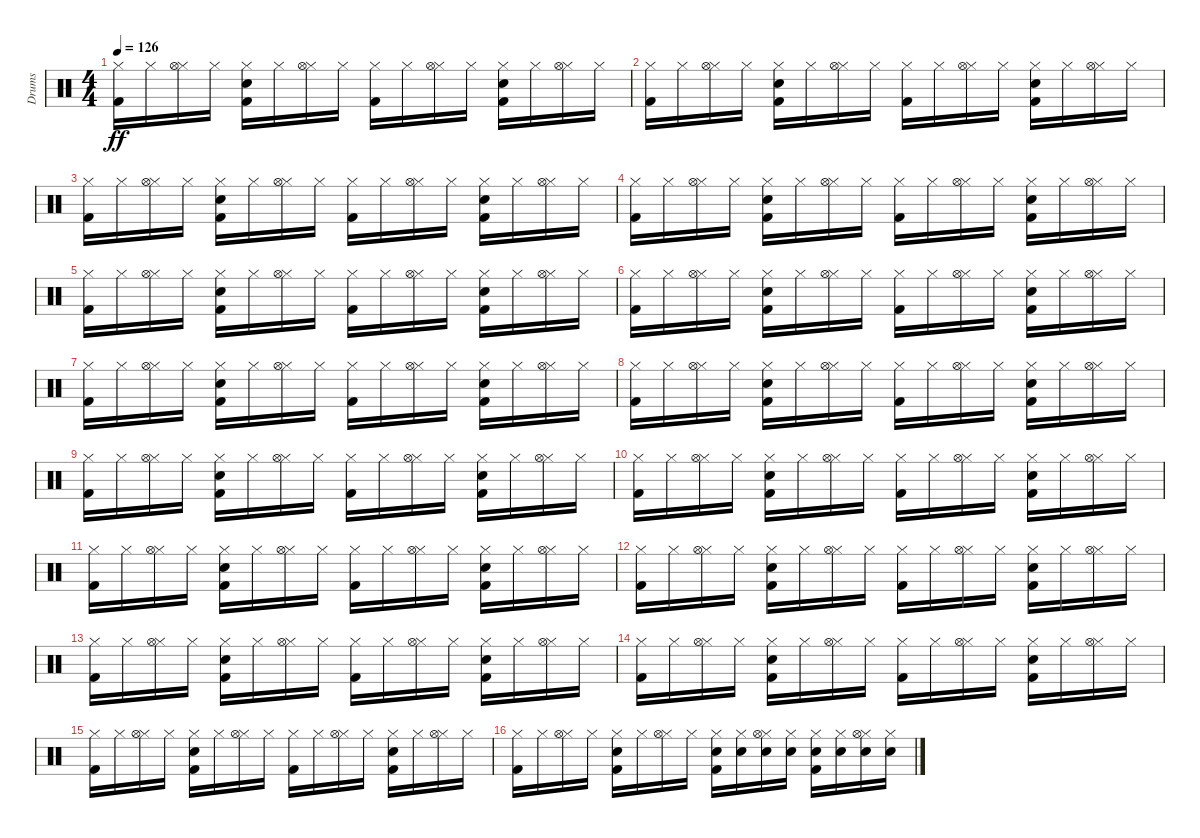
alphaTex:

\track ("Drums" "Drums") {instrument percussion}
\staff {score}
\articulation defaults
\ts (4 4)
\tempo 126
\clef neutral
\ks c
("Kick (hit) 2" "Hi-Hat (closed)").16{dy ff} "Hi-Hat (closed)".16 ("Hi-Hat (closed)" "Hi-Hat (open)").16 "Hi-Hat (closed)".16 ("Kick (hit) 2" "Electric Snare (hit)" "Hi-Hat (closed)").16 "Hi-Hat (closed)".16 ("Hi-Hat (closed)" "Hi-Hat (open)").16 "Hi-Hat (closed)".16 ("Kick (hit) 2" "Hi-Hat (closed)").16 "Hi-Hat (closed)".16 ("Hi-Hat (closed)" "Hi-Hat (open)").16 "Hi-Hat (closed)".16 ("Kick (hit) 2" "Electric Snare (hit)" "Hi-Hat (closed)").16 "Hi-Hat (closed)".16 ("Hi-Hat (closed)" "Hi-Hat (open)").16 "Hi-Hat (closed)".16 |
("Kick (hit) 2" "Hi-Hat (closed)").16 "Hi-Hat (closed)".16 ("Hi-Hat (closed)" "Hi-Hat (open)").16 "Hi-Hat (closed)".16 ("Kick (hit) 2" "Electric Snare (hit)" "Hi-Hat (closed)").16 "Hi-Hat (closed)".16 ("Hi-Hat (closed)" "Hi-Hat (open)").16 "Hi-Hat (closed)".16 ("Kick (hit) 2" "Hi-Hat (closed)").16 "Hi-Hat (closed)".16 ("Hi-Hat (closed)" "Hi-Hat (open)").16 "Hi-Hat (closed)".16 ("Kick (hit) 2" "Electric Snare (hit)" "Hi-Hat (closed)").16 "Hi-Hat (closed)".16 ("Hi-Hat (closed)" "Hi-Hat (open)").16 "Hi-Hat (closed)".16 |
("Kick (hit) 2" "Hi-Hat (closed)").16 "Hi-Hat (closed)".16 ("Hi-Hat (closed)" "Hi-Hat (open)").16 "Hi-Hat (closed)".16 ("Kick (hit) 2" "Electric Snare (hit)" "Hi-Hat (closed)").16 "Hi-Hat (closed)".16 ("Hi-Hat (closed)" "Hi-Hat (open)").16 "Hi-Hat (closed)".16 ("Kick (hit) 2" "Hi-Hat (closed)").16 "Hi-Hat (closed)".16 ("Hi-Hat (closed)" "Hi-Hat (open)").16 "Hi-Hat (closed)".16 ("Kick (hit) 2" "Electric Snare (hit)" "Hi-Hat (closed)").16 "Hi-Hat (closed)".16 ("Hi-Hat (closed)" "Hi-Hat (open)").16 "Hi-Hat (closed)".16 |
("Kick (hit) 2" "Hi-Hat (closed)").16 "Hi-Hat (closed)".16 ("Hi-Hat (closed)" "Hi-Hat (open)").16 "Hi-Hat (closed)".16 ("Kick (hit) 2" "Electric Snare (hit)" "Hi-Hat (closed)").16 "Hi-Hat (closed)".16 ("Hi-Hat (closed)" "Hi-Hat (open)").16 "Hi-Hat (closed)".16 ("Kick (hit) 2" "Hi-Hat (closed)").16 "Hi-Hat (closed)".16 ("Hi-Hat (closed)" "Hi-Hat (open)").16 "Hi-Hat (closed)".16 ("Kick (hit) 2" "Electric Snare (hit)" "Hi-Hat (closed)").16 "Hi-Hat (closed)".16 ("Hi-Hat (closed)" "Hi-Hat (open)").16 "Hi-Hat (closed)".16 |
("Kick (hit) 2" "Hi-Hat (closed)").16 "Hi-Hat (closed)".16 ("Hi-Hat (closed)" "Hi-Hat (open)").16 "Hi-Hat (closed)".16 ("Kick (hit) 2" "Electric Snare (hit)" "Hi-Hat (closed)").16 "Hi-Hat (closed)".16 ("Hi-Hat (closed)" "Hi-Hat (open)").16 "Hi-Hat (closed)".16 ("Kick (hit) 2" "Hi-Hat (closed)").16 "Hi-Hat (closed)".16 ("Hi-Hat (closed)" "Hi-Hat (open)").16 "Hi-Hat (closed)".16 ("Kick (hit) 2" "Electric Snare (hit)" "Hi-Hat (closed)").16 "Hi-Hat (closed)".16 ("Hi-Hat (closed)" "Hi-Hat (open)").16 "Hi-Hat (closed)".16 |
("Kick (hit) 2" "Hi-Hat (closed)").16 "Hi-Hat (closed)".16 ("Hi-Hat (closed)" "Hi-Hat (open)").16 "Hi-Hat (closed)".16 ("Kick (hit) 2" "Electric Snare (hit)" "Hi-Hat (closed)").16 "Hi-Hat (closed)".16 ("Hi-Hat (closed)" "Hi-Hat (open)").16 "Hi-Hat (closed)".16 ("Kick (hit) 2" "Hi-Hat (closed)").16 "Hi-Hat (closed)".16 ("Hi-Hat (closed)" "Hi-Hat (open)").16 "Hi-Hat (closed)".16 ("Kick (hit) 2" "Electric Snare (hit)" "Hi-Hat (closed)").16 "Hi-Hat (closed)".16 ("Hi-Hat (closed)" "Hi-Hat (open)").16 "Hi-Hat (closed)".16 |
("Kick (hit) 2" "Hi-Hat (closed)").16 "Hi-Hat (closed)".16 ("Hi-Hat (closed)" "Hi-Hat (open)").16 "Hi-Hat (closed)".16 ("Kick (hit) 2" "Electric Snare (hit)" "Hi-Hat (closed)").16 "Hi-Hat (closed)".16 ("Hi-Hat (closed)" "Hi-Hat (open)").16 "Hi-Hat (closed)".16 ("Kick (hit) 2" "Hi-Hat (closed)").16 "Hi-Hat (closed)".16 ("Hi-Hat (closed)" "Hi-Hat (open)").16 "Hi-Hat (closed)".16 ("Kick (hit) 2" "Electric Snare (hit)" "Hi-Hat (closed)").16 "Hi-Hat (closed)".16 ("Hi-Hat (closed)" "Hi-Hat (open)").16 "Hi-Hat (closed)".16 |
("Kick (hit) 2" "Hi-Hat (closed)").16 "Hi-Hat (closed)".16 ("Hi-Hat (closed)" "Hi-Hat (open)").16 "Hi-Hat (closed)".16 ("Kick (hit) 2" "Electric Snare (hit)" "Hi-Hat (closed)").16 "Hi-Hat (closed)".16 ("Hi-Hat (closed)" "Hi-Hat (open)").16 "Hi-Hat (closed)".16 ("Kick (hit) 2" "Hi-Hat (closed)").16 "Hi-Hat (closed)".16 ("Hi-Hat (closed)" "Hi-Hat (open)").16 "Hi-Hat (closed)".16 ("Kick (hit) 2" "Electric Snare (hit)" "Hi-Hat (closed)").16 "Hi-Hat (closed)".16 ("Hi-Hat (closed)" "Hi-Hat (open)").16 "Hi-Hat (closed)".16 |
("Kick (hit) 2" "Hi-Hat (closed)").16 "Hi-Hat (closed)".16 ("Hi-Hat (closed)" "Hi-Hat (open)").16 "Hi-Hat (closed)".16 ("Kick (hit) 2" "Electric Snare (hit)" "Hi-Hat (closed)").16 "Hi-Hat (closed)".16 ("Hi-Hat (closed)" "Hi-Hat (open)").16 "Hi-Hat (closed)".16 ("Kick (hit) 2" "Hi-Hat (closed)").16 "Hi-Hat (closed)".16 ("Hi-Hat (closed)" "Hi-Hat (open)").16 "Hi-Hat (closed)".16 ("Kick (hit) 2" "Electric Snare (hit)" "Hi-Hat (closed)").16 "Hi-Hat (closed)".16 ("Hi-Hat (closed)" "Hi-Hat (open)").16 "Hi-Hat (closed)".16 |
("Kick (hit) 2" "Hi-Hat (closed)").16 "Hi-Hat (closed)".16 ("Hi-Hat (closed)" "Hi-Hat (open)").16 "Hi-Hat (closed)".16 ("Kick (hit) 2" "Electric Snare (hit)" "Hi-Hat (closed)").16 "Hi-Hat (closed)".16 ("Hi-Hat (closed)" "Hi-Hat (open)").16 "Hi-Hat (closed)".16 ("Kick (hit) 2" "Hi-Hat (closed)").16 "Hi-Hat (closed)".16 ("Hi-Hat (closed)" "Hi-Hat (open)").16 "Hi-Hat (closed)".16 ("Kick (hit) 2" "Electric Snare (hit)" "Hi-Hat (closed)").16 "Hi-Hat (closed)".16 ("Hi-Hat (closed)" "Hi-Hat (open)").16 "Hi-Hat (closed)".16 |
("Kick (hit) 2" "Hi-Hat (closed)").16 "Hi-Hat (closed)".16 ("Hi-Hat (closed)" "Hi-Hat (open)").16 "Hi-Hat (closed)".16 ("Kick (hit) 2" "Electric Snare (hit)" "Hi-Hat (closed)").16 "Hi-Hat (closed)".16 ("Hi-Hat (closed)" "Hi-Hat (open)").16 "Hi-Hat (closed)".16 ("Kick (hit) 2" "Hi-Hat (closed)").16 "Hi-Hat (closed)".16 ("Hi-Hat (closed)" "Hi-Hat (open)").16 "Hi-Hat (closed)".16 ("Kick (hit) 2" "Electric Snare (hit)" "Hi-Hat (closed)").16 "Hi-Hat (closed)".16 ("Hi-Hat (closed)" "Hi-Hat (open)").16 "Hi-Hat (closed)".16 |
("Kick (hit) 2" "Hi-Hat (closed)").16 "Hi-Hat (closed)".16 ("Hi-Hat (closed)" "Hi-Hat (open)").16 "Hi-Hat (closed)".16 ("Kick (hit) 2" "Electric Snare (hit)" "Hi-Hat (closed)").16 "Hi-Hat (closed)".16 ("Hi-Hat (closed)" "Hi-Hat (open)").16 "Hi-Hat (closed)".16 ("Kick (hit) 2" "Hi-Hat (closed)").16 "Hi-Hat (closed)".16 ("Hi-Hat (closed)" "Hi-Hat (open)").16 "Hi-Hat (closed)".16 ("Kick (hit) 2" "Electric Snare (hit)" "Hi-Hat (closed)").16 "Hi-Hat (closed)".16 ("Hi-Hat (closed)" "Hi-Hat (open)").16 "Hi-Hat (closed)".16 |
("Kick (hit) 2" "Hi-Hat (closed)").16 "Hi-Hat (closed)".16 ("Hi-Hat (closed)" "Hi-Hat (open)").16 "Hi-Hat (closed)".16 ("Kick (hit) 2" "Electric Snare (hit)" "Hi-Hat (closed)").16 "Hi-Hat (closed)".16 ("Hi-Hat (closed)" "Hi-Hat (open)").16 "Hi-Hat (closed)".16 ("Kick (hit) 2" "Hi-Hat (closed)").16 "Hi-Hat (closed)".16 ("Hi-Hat (closed)" "Hi-Hat (open)").16 "Hi-Hat (closed)".16 ("Kick (hit) 2" "Electric Snare (hit)" "Hi-Hat (closed)").16 "Hi-Hat (closed)".16 ("Hi-Hat (closed)" "Hi-Hat (open)").16 "Hi-Hat (closed)".16 |
("Kick (hit) 2" "Hi-Hat (closed)").16 "Hi-Hat (closed)".16 ("Hi-Hat (closed)" "Hi-Hat (open)").16 "Hi-Hat (closed)".16 ("Kick (hit) 2" "Electric Snare (hit)" "Hi-Hat (closed)").16 "Hi-Hat (closed)".16 ("Hi-Hat (closed)" "Hi-Hat (open)").16 "Hi-Hat (closed)".16 ("Kick (hit) 2" "Hi-Hat (closed)").16 "Hi-Hat (closed)".16 ("Hi-Hat (closed)" "Hi-Hat (open)").16 "Hi-Hat (closed)".16 ("Kick (hit) 2" "Electric Snare (hit)" "Hi-Hat (closed)").16 "Hi-Hat (closed)".16 ("Hi-Hat (closed)" "Hi-Hat (open)").16 "Hi-Hat (closed)".16 |
("Kick (hit) 2" "Hi-Hat (closed)").16 "Hi-Hat (closed)".16 ("Hi-Hat (closed)" "Hi-Hat (open)").16 "Hi-Hat (closed)".16 ("Kick (hit) 2" "Electric Snare (hit)" "Hi-Hat (closed)").16 "Hi-Hat (closed)".16 ("Hi-Hat (closed)" "Hi-Hat (open)").16 "Hi-Hat (closed)".16 ("Kick (hit) 2" "Hi-Hat (closed)").16 "Hi-Hat (closed)".16 ("Hi-Hat (closed)" "Hi-Hat (open)").16 "Hi-Hat (closed)".16 ("Kick (hit) 2" "Electric Snare (hit)" "Hi-Hat (closed)").16 "Hi-Hat (closed)".16 ("Hi-Hat (closed)" "Hi-Hat (open)").16 "Hi-Hat (closed)".16 |
("Kick (hit) 2" "Hi-Hat (closed)").16 "Hi-Hat (closed)".16 ("Hi-Hat (closed)" "Hi-Hat (open)").16 "Hi-Hat (closed)".16 ("Kick (hit) 2" "Electric Snare (hit)" "Hi-Hat (closed)").16 "Hi-Hat (closed)".16 ("Hi-Hat (closed)" "Hi-Hat (open)").16 "Hi-Hat (closed)".16 ("Kick (hit) 2" "Electric Snare (hit)" "Hi-Hat (closed)").16 ("Electric Snare (hit)" "Hi-Hat (closed)").16 ("Electric Snare (hit)" "Hi-Hat (closed)" "Hi-Hat (open)").16 ("Electric Snare (hit)" "Hi-Hat (closed)").16 ("Kick (hit) 2" "Electric Snare (hit)" "Hi-Hat (closed)").16 ("Electric Snare (hit)" "Hi-Hat (closed)").16 ("Electric Snare (hit)" "Hi-Hat (closed)" "Hi-Hat (open)").16 ("Electric Snare (hit)" "Hi-Hat (closed)").16
